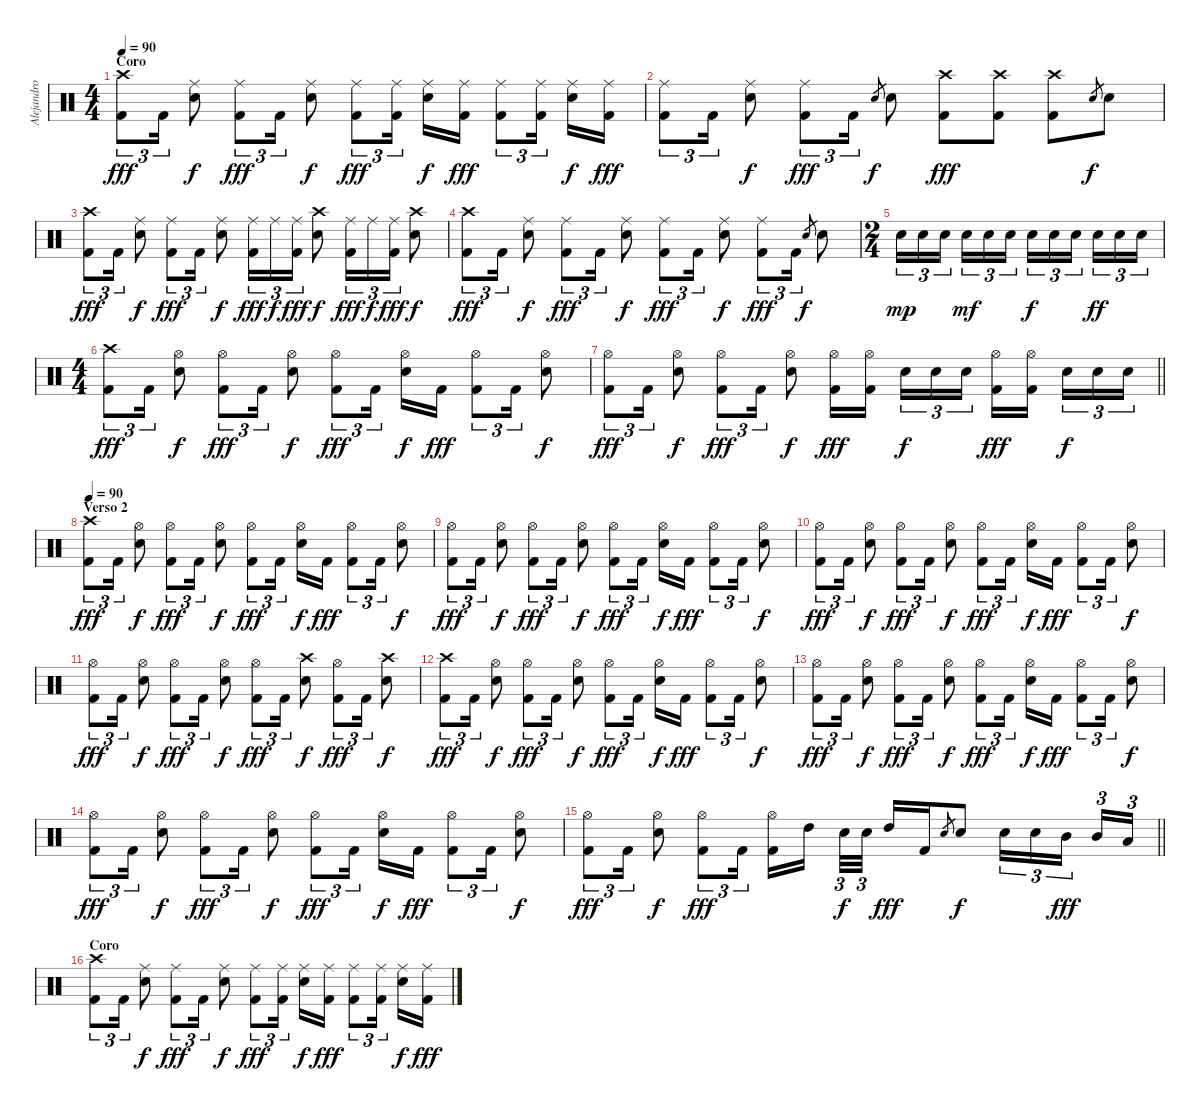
\track ("Alejandro Gutiérrez" "Alejandro ") {instrument percussion}
\staff {score}
\articulation defaults
\ts (4 4)
\section ("" "Coro")
\tempo 90
\clef neutral
\ks c
("Crash high (hit)" "Kick (hit) 2").8{tu (3 2) dy fff} "Kick (hit) 2".16{tu (3 2)} ("Ride (middle)" "Electric Snare (hit)").8{dy f} ("Ride (middle)" "Kick (hit) 2").8{tu (3 2) dy fff} "Kick (hit) 2".16{tu (3 2)} ("Ride (middle)" "Electric Snare (hit)").8{dy f} ("Ride (middle)" "Kick (hit) 2").8{tu (3 2) dy fff} ("Ride (middle)" "Kick (hit) 2").16{tu (3 2) beam splitsecondary} ("Ride (middle)" "Electric Snare (hit)").16{dy f} ("Ride (middle)" "Kick (hit) 2").16{dy fff} ("Ride (middle)" "Kick (hit) 2").8{tu (3 2)} ("Ride (middle)" "Kick (hit) 2").16{tu (3 2) beam splitsecondary} ("Ride (middle)" "Electric Snare (hit)").16{dy f} ("Ride (middle)" "Kick (hit) 2").16{dy fff} |
("Ride (middle)" "Kick (hit) 2").8{tu (3 2)} "Kick (hit) 2".16{tu (3 2)} ("Ride (middle)" "Electric Snare (hit)").8{dy f} ("Ride (middle)" "Kick (hit) 2").8{tu (3 2) dy fff} "Kick (hit) 2".16{tu (3 2)} "Electric Snare (hit)".8{gr dy f} "Electric Snare (hit)".8 ("Crash high (hit)" "Kick (hit) 2").8{dy fff} ("Crash high (hit)" "Kick (hit) 2").8 ("Crash high (hit)" "Kick (hit) 2").8 "Electric Snare (hit)".8{gr dy f} "Electric Snare (hit)".8 |
("Crash high (hit)" "Kick (hit) 2").8{tu (3 2) dy fff} "Kick (hit) 2".16{tu (3 2)} ("Ride (middle)" "Electric Snare (hit)").8{dy f} ("Ride (middle)" "Kick (hit) 2").8{tu (3 2) dy fff} "Kick (hit) 2".16{tu (3 2)} ("Ride (middle)" "Electric Snare (hit)").8{dy f} ("Ride (middle)" "Kick (hit) 2").16{tu (3 2) dy fff} "Ride (middle)".16{tu (3 2) dy f} ("Ride (middle)" "Kick (hit) 2").16{tu (3 2) dy fff} ("Crash high (hit)" "Electric Snare (hit)").8{dy f} ("Ride (middle)" "Kick (hit) 2").16{tu (3 2) dy fff} "Ride (middle)".16{tu (3 2) dy f} ("Ride (middle)" "Kick (hit) 2").16{tu (3 2) dy fff} ("Crash high (hit)" "Electric Snare (hit)").8{dy f} |
("Crash high (hit)" "Kick (hit) 2").8{tu (3 2) dy fff} "Kick (hit) 2".16{tu (3 2)} ("Ride (middle)" "Electric Snare (hit)").8{dy f} ("Ride (middle)" "Kick (hit) 2").8{tu (3 2) dy fff} "Kick (hit) 2".16{tu (3 2)} ("Ride (middle)" "Electric Snare (hit)").8{dy f} ("Ride (middle)" "Kick (hit) 2").8{tu (3 2) dy fff} "Kick (hit) 2".16{tu (3 2)} ("Ride (middle)" "Electric Snare (hit)").8{dy f} ("Ride (middle)" "Kick (hit) 2").8{tu (3 2) dy fff} "Kick (hit) 2".16{tu (3 2)} "Electric Snare (hit)".8{gr dy f} "Electric Snare (hit)".8 |
\ts (2 4)
"Electric Snare (hit)".16{tu (3 2) dy mp} "Electric Snare (hit)".16{tu (3 2)} "Electric Snare (hit)".16{tu (3 2) beam splitsecondary} "Electric Snare (hit)".16{tu (3 2) dy mf} "Electric Snare (hit)".16{tu (3 2)} "Electric Snare (hit)".16{tu (3 2)} "Electric Snare (hit)".16{tu (3 2) dy f} "Electric Snare (hit)".16{tu (3 2)} "Electric Snare (hit)".16{tu (3 2) beam splitsecondary} "Electric Snare (hit)".16{tu (3 2) dy ff} "Electric Snare (hit)".16{tu (3 2)} "Electric Snare (hit)".16{tu (3 2)} |
\ts (4 4)
("Crash high (hit)" "Kick (hit) 2").8{tu (3 2) dy fff} "Kick (hit) 2".16{tu (3 2)} ("Hi-Hat (open)" "Electric Snare (hit)").8{dy f} ("Hi-Hat (open)" "Kick (hit) 2").8{tu (3 2) dy fff} "Kick (hit) 2".16{tu (3 2)} ("Hi-Hat (open)" "Electric Snare (hit)").8{dy f} ("Hi-Hat (open)" "Kick (hit) 2").8{tu (3 2) dy fff} "Kick (hit) 2".16{tu (3 2) beam splitsecondary} ("Hi-Hat (open)" "Electric Snare (hit)").16{dy f} "Kick (hit) 2".16{dy fff} ("Hi-Hat (open)" "Kick (hit) 2").8{tu (3 2)} "Kick (hit) 2".16{tu (3 2)} ("Hi-Hat (open)" "Electric Snare (hit)").8{dy f} |
\barLineRight lightlight
("Hi-Hat (open)" "Kick (hit) 2").8{tu (3 2) dy fff} "Kick (hit) 2".16{tu (3 2)} ("Hi-Hat (open)" "Electric Snare (hit)").8{dy f} ("Hi-Hat (open)" "Kick (hit) 2").8{tu (3 2) dy fff} "Kick (hit) 2".16{tu (3 2)} ("Hi-Hat (open)" "Electric Snare (hit)").8{dy f} ("Hi-Hat (open)" "Kick (hit) 2").16{dy fff} ("Hi-Hat (open)" "Kick (hit) 2").16{beam splitsecondary} "Electric Snare (hit)".16{tu (3 2) dy f} "Electric Snare (hit)".16{tu (3 2)} "Electric Snare (hit)".16{tu (3 2)} ("Hi-Hat (open)" "Kick (hit) 2").16{dy fff} ("Hi-Hat (open)" "Kick (hit) 2").16{beam splitsecondary} "Electric Snare (hit)".16{tu (3 2) dy f} "Electric Snare (hit)".16{tu (3 2)} "Electric Snare (hit)".16{tu (3 2)} |
\section ("" "Verso 2")
\tempo 90
("Crash high (hit)" "Kick (hit) 2").8{tu (3 2) dy fff} "Kick (hit) 2".16{tu (3 2)} ("Hi-Hat (open)" "Electric Snare (hit)").8{dy f} ("Hi-Hat (open)" "Kick (hit) 2").8{tu (3 2) dy fff} "Kick (hit) 2".16{tu (3 2)} ("Hi-Hat (open)" "Electric Snare (hit)").8{dy f} ("Hi-Hat (open)" "Kick (hit) 2").8{tu (3 2) dy fff} "Kick (hit) 2".16{tu (3 2) beam splitsecondary} ("Hi-Hat (open)" "Electric Snare (hit)").16{dy f} "Kick (hit) 2".16{dy fff} ("Hi-Hat (open)" "Kick (hit) 2").8{tu (3 2)} "Kick (hit) 2".16{tu (3 2)} ("Hi-Hat (open)" "Electric Snare (hit)").8{dy f} |
("Hi-Hat (open)" "Kick (hit) 2").8{tu (3 2) dy fff} "Kick (hit) 2".16{tu (3 2)} ("Hi-Hat (open)" "Electric Snare (hit)").8{dy f} ("Hi-Hat (open)" "Kick (hit) 2").8{tu (3 2) dy fff} "Kick (hit) 2".16{tu (3 2)} ("Hi-Hat (open)" "Electric Snare (hit)").8{dy f} ("Hi-Hat (open)" "Kick (hit) 2").8{tu (3 2) dy fff} "Kick (hit) 2".16{tu (3 2) beam splitsecondary} ("Hi-Hat (open)" "Electric Snare (hit)").16{dy f} "Kick (hit) 2".16{dy fff} ("Hi-Hat (open)" "Kick (hit) 2").8{tu (3 2)} "Kick (hit) 2".16{tu (3 2)} ("Hi-Hat (open)" "Electric Snare (hit)").8{dy f} |
("Hi-Hat (open)" "Kick (hit) 2").8{tu (3 2) dy fff} "Kick (hit) 2".16{tu (3 2)} ("Hi-Hat (open)" "Electric Snare (hit)").8{dy f} ("Hi-Hat (open)" "Kick (hit) 2").8{tu (3 2) dy fff} "Kick (hit) 2".16{tu (3 2)} ("Hi-Hat (open)" "Electric Snare (hit)").8{dy f} ("Hi-Hat (open)" "Kick (hit) 2").8{tu (3 2) dy fff} "Kick (hit) 2".16{tu (3 2) beam splitsecondary} ("Hi-Hat (open)" "Electric Snare (hit)").16{dy f} "Kick (hit) 2".16{dy fff} ("Hi-Hat (open)" "Kick (hit) 2").8{tu (3 2)} "Kick (hit) 2".16{tu (3 2)} ("Hi-Hat (open)" "Electric Snare (hit)").8{dy f} |
("Hi-Hat (open)" "Kick (hit) 2").8{tu (3 2) dy fff} "Kick (hit) 2".16{tu (3 2)} ("Hi-Hat (open)" "Electric Snare (hit)").8{dy f} ("Hi-Hat (open)" "Kick (hit) 2").8{tu (3 2) dy fff} "Kick (hit) 2".16{tu (3 2)} ("Hi-Hat (open)" "Electric Snare (hit)").8{dy f} ("Hi-Hat (open)" "Kick (hit) 2").8{tu (3 2) dy fff} "Kick (hit) 2".16{tu (3 2)} ("Crash high (hit)" "Electric Snare (hit)").8{dy f} ("Hi-Hat (open)" "Kick (hit) 2").8{tu (3 2) dy fff} "Kick (hit) 2".16{tu (3 2)} ("Crash high (hit)" "Electric Snare (hit)").8{dy f} |
("Crash high (hit)" "Kick (hit) 2").8{tu (3 2) dy fff} "Kick (hit) 2".16{tu (3 2)} ("Hi-Hat (open)" "Electric Snare (hit)").8{dy f} ("Hi-Hat (open)" "Kick (hit) 2").8{tu (3 2) dy fff} "Kick (hit) 2".16{tu (3 2)} ("Hi-Hat (open)" "Electric Snare (hit)").8{dy f} ("Hi-Hat (open)" "Kick (hit) 2").8{tu (3 2) dy fff} "Kick (hit) 2".16{tu (3 2) beam splitsecondary} ("Hi-Hat (open)" "Electric Snare (hit)").16{dy f} "Kick (hit) 2".16{dy fff} ("Hi-Hat (open)" "Kick (hit) 2").8{tu (3 2)} "Kick (hit) 2".16{tu (3 2)} ("Hi-Hat (open)" "Electric Snare (hit)").8{dy f} |
("Hi-Hat (open)" "Kick (hit) 2").8{tu (3 2) dy fff} "Kick (hit) 2".16{tu (3 2)} ("Hi-Hat (open)" "Electric Snare (hit)").8{dy f} ("Hi-Hat (open)" "Kick (hit) 2").8{tu (3 2) dy fff} "Kick (hit) 2".16{tu (3 2)} ("Hi-Hat (open)" "Electric Snare (hit)").8{dy f} ("Hi-Hat (open)" "Kick (hit) 2").8{tu (3 2) dy fff} "Kick (hit) 2".16{tu (3 2) beam splitsecondary} ("Hi-Hat (open)" "Electric Snare (hit)").16{dy f} "Kick (hit) 2".16{dy fff} ("Hi-Hat (open)" "Kick (hit) 2").8{tu (3 2)} "Kick (hit) 2".16{tu (3 2)} ("Hi-Hat (open)" "Electric Snare (hit)").8{dy f} |
("Hi-Hat (open)" "Kick (hit) 2").8{tu (3 2) dy fff} "Kick (hit) 2".16{tu (3 2)} ("Hi-Hat (open)" "Electric Snare (hit)").8{dy f} ("Hi-Hat (open)" "Kick (hit) 2").8{tu (3 2) dy fff} "Kick (hit) 2".16{tu (3 2)} ("Hi-Hat (open)" "Electric Snare (hit)").8{dy f} ("Hi-Hat (open)" "Kick (hit) 2").8{tu (3 2) dy fff} "Kick (hit) 2".16{tu (3 2) beam splitsecondary} ("Hi-Hat (open)" "Electric Snare (hit)").16{dy f} "Kick (hit) 2".16{dy fff} ("Hi-Hat (open)" "Kick (hit) 2").8{tu (3 2)} "Kick (hit) 2".16{tu (3 2)} ("Hi-Hat (open)" "Electric Snare (hit)").8{dy f} |
\barLineRight lightlight
("Hi-Hat (open)" "Kick (hit) 2").8{tu (3 2) dy fff} "Kick (hit) 2".16{tu (3 2)} ("Hi-Hat (open)" "Electric Snare (hit)").8{dy f} ("Hi-Hat (open)" "Kick (hit) 2").8{tu (3 2) dy fff} "Kick (hit) 2".16{tu (3 2) beam splitsecondary} ("Hi-Hat (open)" "Kick (hit) 2").16 "High Tom (hit)".16 "Electric Snare (hit)".32{tu (3 2) dy f} "Electric Snare (hit)".32{tu (3 2) beam splitsecondary} "High Tom (hit)".16{dy fff} "Kick (hit) 2".16 "Electric Snare (hit)".8{gr} "Electric Snare (hit)".8{dy f} "Electric Snare (hit)".16{tu (3 2)} "Electric Snare (hit)".16{tu (3 2)} "Mid Tom (hit)".16{tu (3 2) dy fff beam splitsecondary} "Mid Tom (hit)".16{tu (3 2)} "Low Tom (hit)".16{tu (3 2)} |
\section ("" "Coro")
("Crash high (hit)" "Kick (hit) 2").8{tu (3 2)} "Kick (hit) 2".16{tu (3 2)} ("Ride (middle)" "Electric Snare (hit)").8{dy f} ("Ride (middle)" "Kick (hit) 2").8{tu (3 2) dy fff} "Kick (hit) 2".16{tu (3 2)} ("Ride (middle)" "Electric Snare (hit)").8{dy f} ("Ride (middle)" "Kick (hit) 2").8{tu (3 2) dy fff} ("Ride (middle)" "Kick (hit) 2").16{tu (3 2) beam splitsecondary} ("Ride (middle)" "Electric Snare (hit)").16{dy f} ("Ride (middle)" "Kick (hit) 2").16{dy fff} ("Ride (middle)" "Kick (hit) 2").8{tu (3 2)} ("Ride (middle)" "Kick (hit) 2").16{tu (3 2) beam splitsecondary} ("Ride (middle)" "Electric Snare (hit)").16{dy f} ("Ride (middle)" "Kick (hit) 2").16{dy fff}
